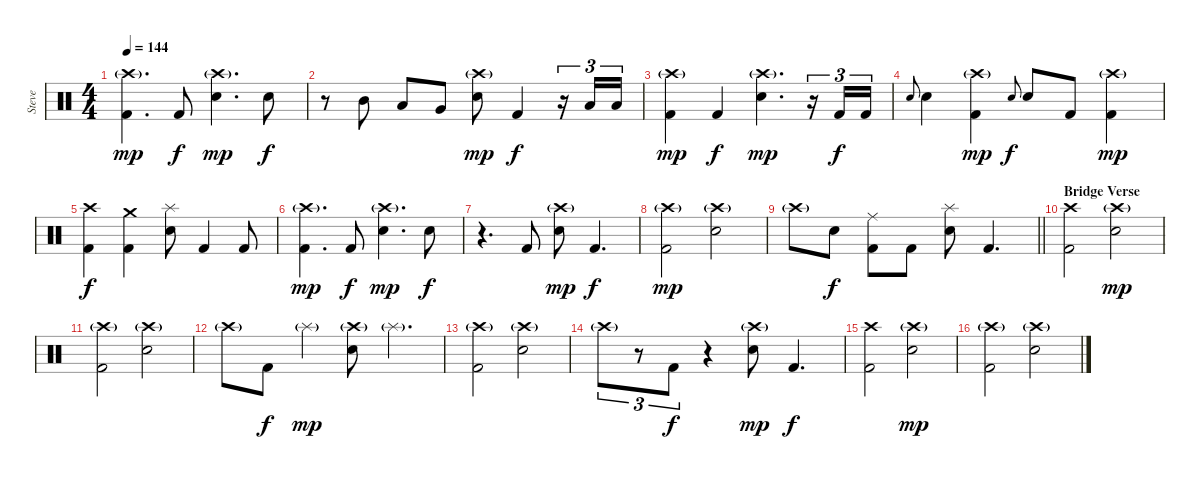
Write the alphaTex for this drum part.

\track ("Steve" "Steve") {instrument percussion}
\staff {score}
\articulation defaults
\ts (4 4)
\tempo 144
\clef neutral
\ks c
("Crash high (hit)"{g} "Kick (hit) 2").4{d dy mp} "Kick (hit) 2".8{dy f} ("Crash high (hit)"{g} "Electric Snare (hit)").4{d dy mp} "Electric Snare (hit)".8{dy f} |
r.8 "Mid Tom (hit)".8 "Low Tom (hit)".8 "Very Low Tom (hit)".8 ("Crash high (hit)"{g} "Electric Snare (hit)").8{dy mp} "Kick (hit) 2".4{dy f} r.16{tu (3 2)} "Low Tom (hit)".16{tu (3 2)} "Low Tom (hit)".16{tu (3 2)} |
("Crash high (hit)"{g} "Kick (hit) 2").4{dy mp} "Kick (hit) 2".4{dy f} ("Crash high (hit)"{g} "Electric Snare (hit)").4{d dy mp} r.16{tu (3 2)} "Kick (hit) 2".16{tu (3 2) dy f} "Kick (hit) 2".16{tu (3 2)} |
"Electric Snare (hit)".8{gr onbeat} "Electric Snare (hit)".4 ("Crash high (hit)"{g} "Kick (hit) 2").4{dy mp} "Electric Snare (hit)".8{gr onbeat dy f} "Electric Snare (hit)".8 "Kick (hit) 2".8 ("Crash high (hit)"{g} "Kick (hit) 2").4{dy mp} |
("Crash high (hit)" "Kick (hit) 2").4{dy f} ("Crash medium (hit)" "Kick (hit) 2").4 ("Splash (hit)" "Electric Snare (hit)").8 "Kick (hit) 2".4 "Kick (hit) 2".8 |
("Crash high (hit)"{g} "Kick (hit) 2").4{d dy mp} "Kick (hit) 2".8{dy f} ("Crash high (hit)"{g} "Electric Snare (hit)").4{d dy mp} "Electric Snare (hit)".8{dy f} |
r.4{d} "Kick (hit) 2".8 ("Crash high (hit)"{g} "Electric Snare (hit)").8{dy mp} "Kick (hit) 2".4{d dy f} |
("Crash high (hit)"{g} "Kick (hit) 2").2{dy mp} ("Crash high (hit)"{g} "Electric Snare (hit)").2 |
\barLineRight lightlight "Crash high (hit)"{g}.8 "Electric Snare (hit)".8{dy f}
("Ride (middle)" "Kick (hit) 2").8 "Kick (hit) 2".8 ("Splash (hit)" "Electric Snare (hit)").8 "Kick (hit) 2".4{d} |
\section ("" "Bridge Verse")
("Crash high (hit)" "Kick (hit) 2").2 ("Crash high (hit)"{g} "Electric Snare (hit)").2{dy mp} |
("Crash high (hit)"{g} "Kick (hit) 2").2 ("Crash high (hit)"{g} "Electric Snare (hit)").2 |
"Crash high (hit)"{g}.8 "Kick (hit) 2".8{dy f} "Splash (hit)"{g}.4{dy mp} ("Crash high (hit)"{g} "Electric Snare (hit)").8 "Splash (hit)"{g}.4{d} |
("Crash high (hit)"{g} "Kick (hit) 2").2 ("Crash high (hit)"{g} "Electric Snare (hit)").2 |
"Crash high (hit)"{g}.8{tu (3 2)} r.8{tu (3 2)} "Kick (hit) 2".8{tu (3 2) dy f} r.4 ("Crash high (hit)"{g} "Electric Snare (hit)").8{dy mp} "Kick (hit) 2".4{d dy f} |
("Crash high (hit)" "Kick (hit) 2").2 ("Crash high (hit)"{g} "Electric Snare (hit)").2{dy mp} |
("Crash high (hit)"{g} "Kick (hit) 2").2 ("Crash high (hit)"{g} "Electric Snare (hit)").2
